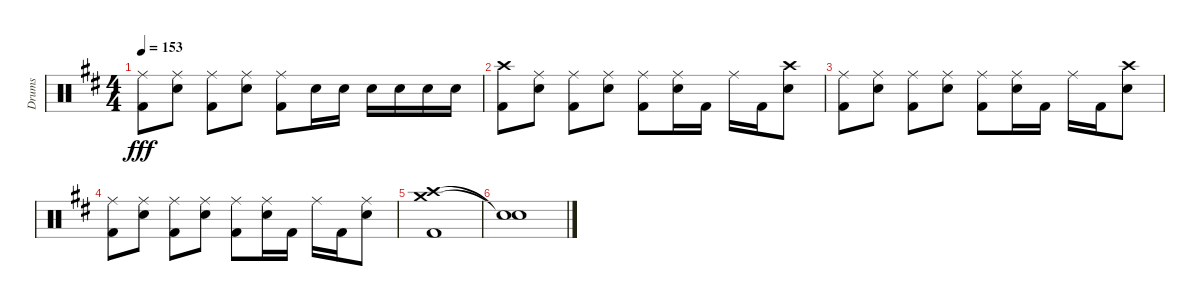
\track ("Drums" "Drums") {instrument percussion}
\staff {score}
\articulation defaults
\ts (4 4)
\tempo 153
\clef neutral
\ks d
("Ride (middle)" "Kick (hit) 2").8{dy fff} ("Ride (middle)" "Electric Snare (hit)").8 ("Ride (middle)" "Kick (hit) 2").8 ("Ride (middle)" "Electric Snare (hit)").8 ("Ride (middle)" "Kick (hit) 2").8 "Electric Snare (hit)".16 "Electric Snare (hit)".16 "Electric Snare (hit)".16 "Electric Snare (hit)".16 "Electric Snare (hit)".16 "Electric Snare (hit)".16 |
("Crash high (hit)" "Kick (hit) 2").8 ("Ride (middle)" "Electric Snare (hit)").8 ("Ride (middle)" "Kick (hit) 2").8 ("Ride (middle)" "Electric Snare (hit)").8 ("Ride (middle)" "Kick (hit) 2").8 ("Ride (middle)" "Electric Snare (hit)").16 "Kick (hit) 2".16 "Ride (middle)".16 "Kick (hit) 2".16 ("Crash high (hit)" "Electric Snare (hit)").8 |
("Ride (middle)" "Kick (hit) 2").8 ("Ride (middle)" "Electric Snare (hit)").8 ("Ride (middle)" "Kick (hit) 2").8 ("Ride (middle)" "Electric Snare (hit)").8 ("Ride (middle)" "Kick (hit) 2").8 ("Ride (middle)" "Electric Snare (hit)").16 "Kick (hit) 2".16 "Ride (middle)".16 "Kick (hit) 2".16 ("Crash high (hit)" "Electric Snare (hit)").8 |
("Ride (middle)" "Kick (hit) 2").8 ("Ride (middle)" "Electric Snare (hit)").8 ("Ride (middle)" "Kick (hit) 2").8 ("Ride (middle)" "Electric Snare (hit)").8 ("Ride (middle)" "Kick (hit) 2").8 ("Ride (middle)" "Electric Snare (hit)").16 "Kick (hit) 2".16 "Ride (middle)".16 "Kick (hit) 2".16 ("Ride (middle)" "Electric Snare (hit)").8 |
("Crash high (hit)" "Crash medium (hit)" "Kick (hit) 2").1 |
("Snare (hit)"{t} "Snare (hit)"{t}).1
